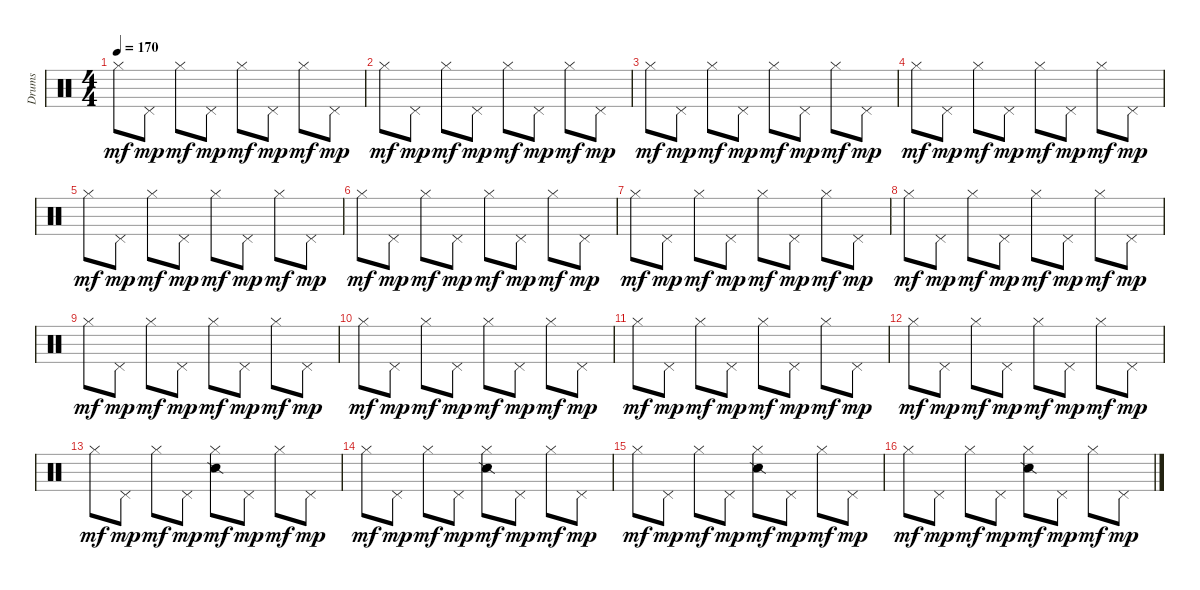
\track ("Drums" "Drums") {instrument percussion}
\staff {score}
\articulation defaults
\ts (4 4)
\tempo 170
\clef neutral
\ks c "Hi-Hat (closed)".8{dy mf} "Pedal Hi-Hat (hit)".8{dy mp} "Hi-Hat (closed)".8{dy mf} "Pedal Hi-Hat (hit)".8{dy mp} "Hi-Hat (closed)".8{dy mf} "Pedal Hi-Hat (hit)".8{dy mp} "Hi-Hat (closed)".8{dy mf} "Pedal Hi-Hat (hit)".8{dy mp}
|
"Hi-Hat (closed)".8{dy mf} "Pedal Hi-Hat (hit)".8{dy mp} "Hi-Hat (closed)".8{dy mf} "Pedal Hi-Hat (hit)".8{dy mp} "Hi-Hat (closed)".8{dy mf} "Pedal Hi-Hat (hit)".8{dy mp} "Hi-Hat (closed)".8{dy mf} "Pedal Hi-Hat (hit)".8{dy mp} |
"Hi-Hat (closed)".8{dy mf} "Pedal Hi-Hat (hit)".8{dy mp} "Hi-Hat (closed)".8{dy mf} "Pedal Hi-Hat (hit)".8{dy mp} "Hi-Hat (closed)".8{dy mf} "Pedal Hi-Hat (hit)".8{dy mp} "Hi-Hat (closed)".8{dy mf} "Pedal Hi-Hat (hit)".8{dy mp} |
"Hi-Hat (closed)".8{dy mf} "Pedal Hi-Hat (hit)".8{dy mp} "Hi-Hat (closed)".8{dy mf} "Pedal Hi-Hat (hit)".8{dy mp} "Hi-Hat (closed)".8{dy mf} "Pedal Hi-Hat (hit)".8{dy mp} "Hi-Hat (closed)".8{dy mf} "Pedal Hi-Hat (hit)".8{dy mp} |
"Hi-Hat (closed)".8{dy mf} "Pedal Hi-Hat (hit)".8{dy mp} "Hi-Hat (closed)".8{dy mf} "Pedal Hi-Hat (hit)".8{dy mp} "Hi-Hat (closed)".8{dy mf} "Pedal Hi-Hat (hit)".8{dy mp} "Hi-Hat (closed)".8{dy mf} "Pedal Hi-Hat (hit)".8{dy mp} |
"Hi-Hat (closed)".8{dy mf} "Pedal Hi-Hat (hit)".8{dy mp} "Hi-Hat (closed)".8{dy mf} "Pedal Hi-Hat (hit)".8{dy mp} "Hi-Hat (closed)".8{dy mf} "Pedal Hi-Hat (hit)".8{dy mp} "Hi-Hat (closed)".8{dy mf} "Pedal Hi-Hat (hit)".8{dy mp} |
"Hi-Hat (closed)".8{dy mf} "Pedal Hi-Hat (hit)".8{dy mp} "Hi-Hat (closed)".8{dy mf} "Pedal Hi-Hat (hit)".8{dy mp} "Hi-Hat (closed)".8{dy mf} "Pedal Hi-Hat (hit)".8{dy mp} "Hi-Hat (closed)".8{dy mf} "Pedal Hi-Hat (hit)".8{dy mp} |
"Hi-Hat (closed)".8{dy mf} "Pedal Hi-Hat (hit)".8{dy mp} "Hi-Hat (closed)".8{dy mf} "Pedal Hi-Hat (hit)".8{dy mp} "Hi-Hat (closed)".8{dy mf} "Pedal Hi-Hat (hit)".8{dy mp} "Hi-Hat (closed)".8{dy mf} "Pedal Hi-Hat (hit)".8{dy mp} |
"Hi-Hat (closed)".8{dy mf} "Pedal Hi-Hat (hit)".8{dy mp} "Hi-Hat (closed)".8{dy mf} "Pedal Hi-Hat (hit)".8{dy mp} "Hi-Hat (closed)".8{dy mf} "Pedal Hi-Hat (hit)".8{dy mp} "Hi-Hat (closed)".8{dy mf} "Pedal Hi-Hat (hit)".8{dy mp} |
"Hi-Hat (closed)".8{dy mf} "Pedal Hi-Hat (hit)".8{dy mp} "Hi-Hat (closed)".8{dy mf} "Pedal Hi-Hat (hit)".8{dy mp} "Hi-Hat (closed)".8{dy mf} "Pedal Hi-Hat (hit)".8{dy mp} "Hi-Hat (closed)".8{dy mf} "Pedal Hi-Hat (hit)".8{dy mp} |
"Hi-Hat (closed)".8{dy mf} "Pedal Hi-Hat (hit)".8{dy mp} "Hi-Hat (closed)".8{dy mf} "Pedal Hi-Hat (hit)".8{dy mp} "Hi-Hat (closed)".8{dy mf} "Pedal Hi-Hat (hit)".8{dy mp} "Hi-Hat (closed)".8{dy mf} "Pedal Hi-Hat (hit)".8{dy mp} |
"Hi-Hat (closed)".8{dy mf} "Pedal Hi-Hat (hit)".8{dy mp} "Hi-Hat (closed)".8{dy mf} "Pedal Hi-Hat (hit)".8{dy mp} "Hi-Hat (closed)".8{dy mf} "Pedal Hi-Hat (hit)".8{dy mp} "Hi-Hat (closed)".8{dy mf} "Pedal Hi-Hat (hit)".8{dy mp} |
"Hi-Hat (closed)".8{dy mf volume 4} "Pedal Hi-Hat (hit)".8{dy mp} "Hi-Hat (closed)".8{dy mf} "Pedal Hi-Hat (hit)".8{dy mp} ("Snare (side stick) 2" "Hi-Hat (closed)").8{dy mf} "Pedal Hi-Hat (hit)".8{dy mp} "Hi-Hat (closed)".8{dy mf} "Pedal Hi-Hat (hit)".8{dy mp} |
"Hi-Hat (closed)".8{dy mf} "Pedal Hi-Hat (hit)".8{dy mp} "Hi-Hat (closed)".8{dy mf} "Pedal Hi-Hat (hit)".8{dy mp} ("Snare (side stick) 2" "Hi-Hat (closed)").8{dy mf} "Pedal Hi-Hat (hit)".8{dy mp} "Hi-Hat (closed)".8{dy mf} "Pedal Hi-Hat (hit)".8{dy mp} |
"Hi-Hat (closed)".8{dy mf} "Pedal Hi-Hat (hit)".8{dy mp} "Hi-Hat (closed)".8{dy mf} "Pedal Hi-Hat (hit)".8{dy mp} ("Snare (side stick) 2" "Hi-Hat (closed)").8{dy mf} "Pedal Hi-Hat (hit)".8{dy mp} "Hi-Hat (closed)".8{dy mf} "Pedal Hi-Hat (hit)".8{dy mp} |
"Hi-Hat (closed)".8{dy mf} "Pedal Hi-Hat (hit)".8{dy mp} "Hi-Hat (closed)".8{dy mf} "Pedal Hi-Hat (hit)".8{dy mp} ("Snare (side stick) 2" "Hi-Hat (closed)").8{dy mf} "Pedal Hi-Hat (hit)".8{dy mp} "Hi-Hat (closed)".8{dy mf} "Pedal Hi-Hat (hit)".8{dy mp}
